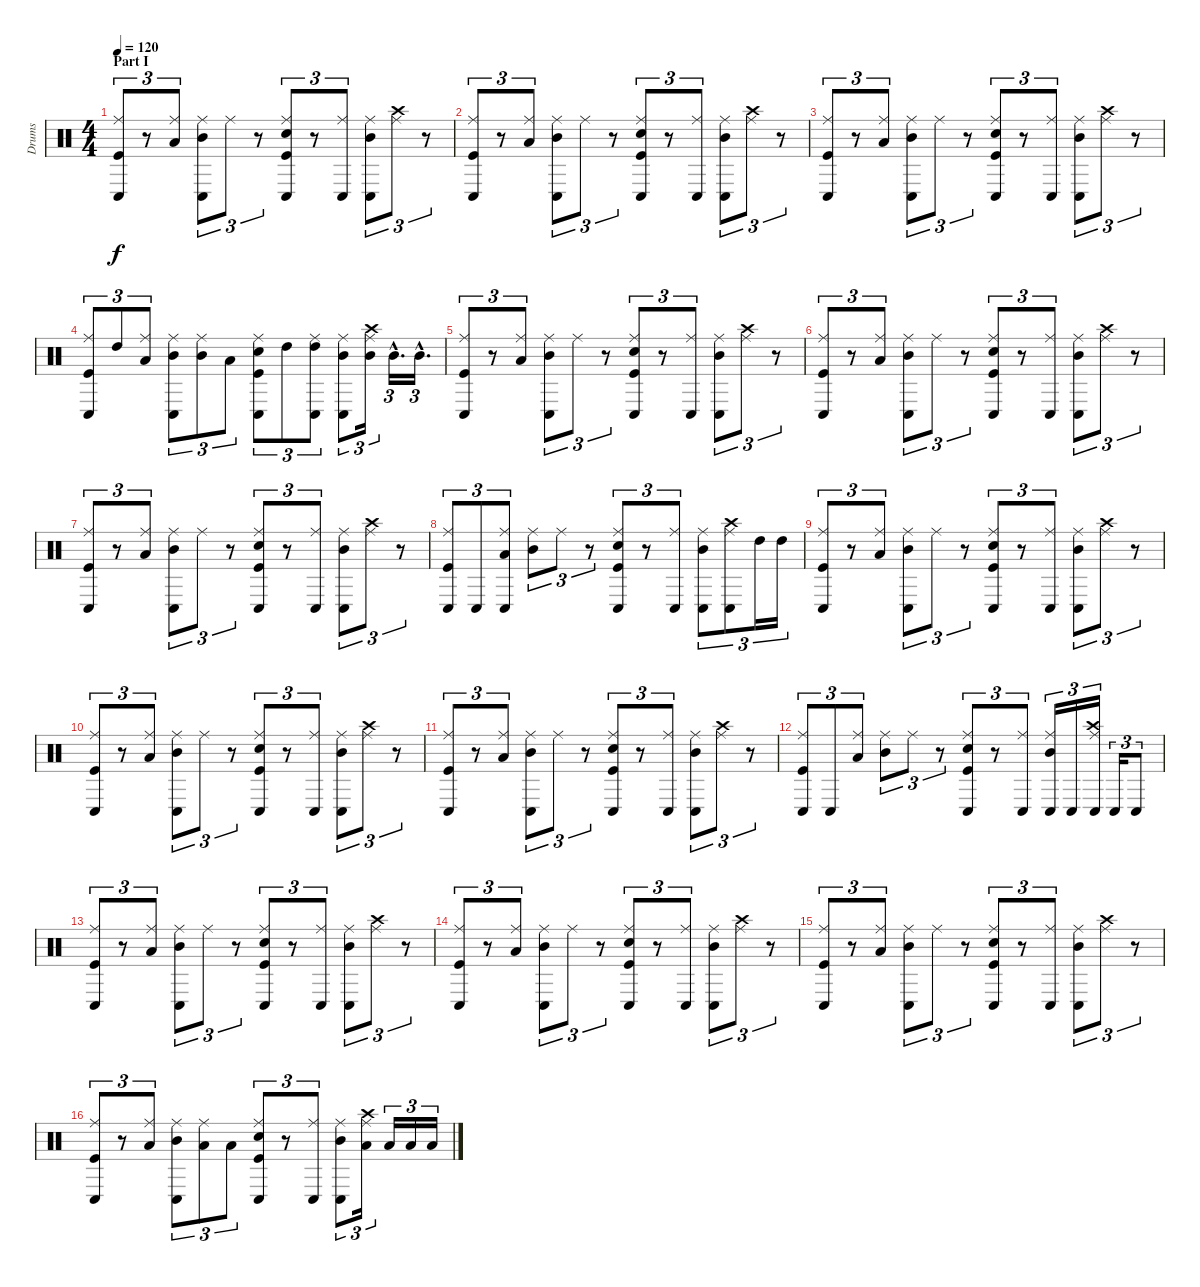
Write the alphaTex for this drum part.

\track ("Drums" "Drums") {instrument percussion}
\staff {score}
\articulation defaults
\ts (4 4)
\section ("" "Part I")
\tempo 120
\clef neutral
\ks c
("Kick (hit)" "Ride (middle)" "Conga low (hit)").8{tu (3 2) dy f} r.8{tu (3 2)} ("Low Floor Tom (hit)" "Ride (middle)").8{tu (3 2)} ("Mid Tom (hit)" "Ride (middle)" "Conga low (hit)").8{tu (3 2)} "Ride (middle)".8{tu (3 2)} r.8{tu (3 2)} ("Kick (hit)" "Snare (hit) 2" "Ride (middle)" "Conga low (hit)").8{tu (3 2)} r.8{tu (3 2)} ("Ride (middle)" "Conga low (hit)").8{tu (3 2)} ("Mid Tom (hit)" "Ride (middle)" "Conga low (hit)").8{tu (3 2)} ("Ride (middle)" "Crash high (hit)").8{tu (3 2)} r.8{tu (3 2)} |
("Kick (hit)" "Ride (middle)" "Conga low (hit)").8{tu (3 2)} r.8{tu (3 2)} ("Low Floor Tom (hit)" "Ride (middle)").8{tu (3 2)} ("Mid Tom (hit)" "Ride (middle)" "Conga low (hit)").8{tu (3 2)} "Ride (middle)".8{tu (3 2)} r.8{tu (3 2)} ("Kick (hit)" "Snare (hit) 2" "Ride (middle)" "Conga low (hit)").8{tu (3 2)} r.8{tu (3 2)} ("Ride (middle)" "Conga low (hit)").8{tu (3 2)} ("Mid Tom (hit)" "Ride (middle)" "Conga low (hit)").8{tu (3 2)} ("Ride (middle)" "Crash high (hit)").8{tu (3 2)} r.8{tu (3 2)} |
("Kick (hit)" "Ride (middle)" "Conga low (hit)").8{tu (3 2)} r.8{tu (3 2)} ("Low Floor Tom (hit)" "Ride (middle)").8{tu (3 2)} ("Mid Tom (hit)" "Ride (middle)" "Conga low (hit)").8{tu (3 2)} "Ride (middle)".8{tu (3 2)} r.8{tu (3 2)} ("Kick (hit)" "Snare (hit) 2" "Ride (middle)" "Conga low (hit)").8{tu (3 2)} r.8{tu (3 2)} ("Ride (middle)" "Conga low (hit)").8{tu (3 2)} ("Mid Tom (hit)" "Ride (middle)" "Conga low (hit)").8{tu (3 2)} ("Ride (middle)" "Crash high (hit)").8{tu (3 2)} r.8{tu (3 2)} |
("Kick (hit)" "Ride (middle)" "Conga low (hit)").8{tu (3 2)} "High Tom (hit)".8{tu (3 2)} ("Low Floor Tom (hit)" "Ride (middle)").8{tu (3 2)} ("Mid Tom (hit)" "Ride (middle)" "Conga low (hit)").8{tu (3 2)} ("Mid Tom (hit)" "Ride (middle)").8{tu (3 2)} "Low Tom (hit)".8{tu (3 2)} ("Kick (hit)" "Snare (hit) 2" "Ride (middle)" "Conga low (hit)").8{tu (3 2)} "High Tom (hit)".8{tu (3 2)} ("High Tom (hit)" "Ride (middle)" "Conga low (hit)").8{tu (3 2)} ("Mid Tom (hit)" "Ride (middle)" "Conga low (hit)").8{tu (3 2)} ("Mid Tom (hit)" "Ride (middle)" "Crash high (hit)").16{tu (3 2)} "Mid Tom (hit)"{hac}.16{d tu (3 2)} "Mid Tom (hit)"{hac}.16{d tu (3 2)} |
("Kick (hit)" "Ride (middle)" "Conga low (hit)").8{tu (3 2)} r.8{tu (3 2)} ("Low Floor Tom (hit)" "Ride (middle)").8{tu (3 2)} ("Mid Tom (hit)" "Ride (middle)" "Conga low (hit)").8{tu (3 2)} "Ride (middle)".8{tu (3 2)} r.8{tu (3 2)} ("Kick (hit)" "Snare (hit) 2" "Ride (middle)" "Conga low (hit)").8{tu (3 2)} r.8{tu (3 2)} ("Ride (middle)" "Conga low (hit)").8{tu (3 2)} ("Mid Tom (hit)" "Ride (middle)" "Conga low (hit)").8{tu (3 2)} ("Ride (middle)" "Crash high (hit)").8{tu (3 2)} r.8{tu (3 2)} |
("Kick (hit)" "Ride (middle)" "Conga low (hit)").8{tu (3 2)} r.8{tu (3 2)} ("Low Floor Tom (hit)" "Ride (middle)").8{tu (3 2)} ("Mid Tom (hit)" "Ride (middle)" "Conga low (hit)").8{tu (3 2)} "Ride (middle)".8{tu (3 2)} r.8{tu (3 2)} ("Kick (hit)" "Snare (hit) 2" "Ride (middle)" "Conga low (hit)").8{tu (3 2)} r.8{tu (3 2)} ("Ride (middle)" "Conga low (hit)").8{tu (3 2)} ("Mid Tom (hit)" "Ride (middle)" "Conga low (hit)").8{tu (3 2)} ("Ride (middle)" "Crash high (hit)").8{tu (3 2)} r.8{tu (3 2)} |
("Kick (hit)" "Ride (middle)" "Conga low (hit)").8{tu (3 2)} r.8{tu (3 2)} ("Low Floor Tom (hit)" "Ride (middle)").8{tu (3 2)} ("Mid Tom (hit)" "Ride (middle)" "Conga low (hit)").8{tu (3 2)} "Ride (middle)".8{tu (3 2)} r.8{tu (3 2)} ("Kick (hit)" "Snare (hit) 2" "Ride (middle)" "Conga low (hit)").8{tu (3 2)} r.8{tu (3 2)} ("Ride (middle)" "Conga low (hit)").8{tu (3 2)} ("Mid Tom (hit)" "Ride (middle)" "Conga low (hit)").8{tu (3 2)} ("Ride (middle)" "Crash high (hit)").8{tu (3 2)} r.8{tu (3 2)} |
("Kick (hit)" "Ride (middle)" "Conga low (hit)").8{tu (3 2)} "Conga low (hit)".8{tu (3 2)} ("Low Floor Tom (hit)" "Ride (middle)" "Conga low (hit)").8{tu (3 2)} ("Mid Tom (hit)" "Ride (middle)").8{tu (3 2)} "Ride (middle)".8{tu (3 2)} r.8{tu (3 2)} ("Kick (hit)" "Snare (hit) 2" "Ride (middle)" "Conga low (hit)").8{tu (3 2)} r.8{tu (3 2)} ("Ride (middle)" "Conga low (hit)").8{tu (3 2)} ("Mid Tom (hit)" "Ride (middle)" "Conga low (hit)").8{tu (3 2)} ("Ride (middle)" "Crash high (hit)" "Conga low (hit)").8{tu (3 2)} "High Tom (hit)".16{tu (3 2)} "High Tom (hit)".16{tu (3 2)} |
("Kick (hit)" "Ride (middle)" "Conga low (hit)").8{tu (3 2)} r.8{tu (3 2)} ("Low Floor Tom (hit)" "Ride (middle)").8{tu (3 2)} ("Mid Tom (hit)" "Ride (middle)" "Conga low (hit)").8{tu (3 2)} "Ride (middle)".8{tu (3 2)} r.8{tu (3 2)} ("Kick (hit)" "Snare (hit) 2" "Ride (middle)" "Conga low (hit)").8{tu (3 2)} r.8{tu (3 2)} ("Ride (middle)" "Conga low (hit)").8{tu (3 2)} ("Mid Tom (hit)" "Ride (middle)" "Conga low (hit)").8{tu (3 2)} ("Ride (middle)" "Crash high (hit)").8{tu (3 2)} r.8{tu (3 2)} |
("Kick (hit)" "Ride (middle)" "Conga low (hit)").8{tu (3 2)} r.8{tu (3 2)} ("Low Floor Tom (hit)" "Ride (middle)").8{tu (3 2)} ("Mid Tom (hit)" "Ride (middle)" "Conga low (hit)").8{tu (3 2)} "Ride (middle)".8{tu (3 2)} r.8{tu (3 2)} ("Kick (hit)" "Snare (hit) 2" "Ride (middle)" "Conga low (hit)").8{tu (3 2)} r.8{tu (3 2)} ("Ride (middle)" "Conga low (hit)").8{tu (3 2)} ("Mid Tom (hit)" "Ride (middle)" "Conga low (hit)").8{tu (3 2)} ("Ride (middle)" "Crash high (hit)").8{tu (3 2)} r.8{tu (3 2)} |
("Kick (hit)" "Ride (middle)" "Conga low (hit)").8{tu (3 2)} r.8{tu (3 2)} ("Low Floor Tom (hit)" "Ride (middle)").8{tu (3 2)} ("Mid Tom (hit)" "Ride (middle)" "Conga low (hit)").8{tu (3 2)} "Ride (middle)".8{tu (3 2)} r.8{tu (3 2)} ("Kick (hit)" "Snare (hit) 2" "Ride (middle)" "Conga low (hit)").8{tu (3 2)} r.8{tu (3 2)} ("Ride (middle)" "Conga low (hit)").8{tu (3 2)} ("Mid Tom (hit)" "Ride (middle)" "Conga low (hit)").8{tu (3 2)} ("Ride (middle)" "Crash high (hit)").8{tu (3 2)} r.8{tu (3 2)} |
("Kick (hit)" "Ride (middle)" "Conga low (hit)").8{tu (3 2)} "Conga low (hit)".8{tu (3 2)} ("Low Floor Tom (hit)" "Ride (middle)").8{tu (3 2)} ("Mid Tom (hit)" "Ride (middle)").8{tu (3 2)} "Ride (middle)".8{tu (3 2)} r.8{tu (3 2)} ("Kick (hit)" "Snare (hit) 2" "Ride (middle)" "Conga low (hit)").8{tu (3 2)} r.8{tu (3 2)} ("Ride (middle)" "Conga low (hit)").8{tu (3 2)} ("Mid Tom (hit)" "Ride (middle)" "Conga low (hit)").16{tu (3 2)} "Conga low (hit)".16{tu (3 2)} ("Ride (middle)" "Crash high (hit)" "Conga low (hit)").16{tu (3 2)} "Conga low (hit)".16{tu (3 2)} "Conga low (hit)".8{tu (3 2)} |
("Kick (hit)" "Ride (middle)" "Conga low (hit)").8{tu (3 2)} r.8{tu (3 2)} ("Low Floor Tom (hit)" "Ride (middle)").8{tu (3 2)} ("Mid Tom (hit)" "Ride (middle)" "Conga low (hit)").8{tu (3 2)} "Ride (middle)".8{tu (3 2)} r.8{tu (3 2)} ("Kick (hit)" "Snare (hit) 2" "Ride (middle)" "Conga low (hit)").8{tu (3 2)} r.8{tu (3 2)} ("Ride (middle)" "Conga low (hit)").8{tu (3 2)} ("Mid Tom (hit)" "Ride (middle)" "Conga low (hit)").8{tu (3 2)} ("Ride (middle)" "Crash high (hit)").8{tu (3 2)} r.8{tu (3 2)} |
("Kick (hit)" "Ride (middle)" "Conga low (hit)").8{tu (3 2)} r.8{tu (3 2)} ("Low Floor Tom (hit)" "Ride (middle)").8{tu (3 2)} ("Mid Tom (hit)" "Ride (middle)" "Conga low (hit)").8{tu (3 2)} "Ride (middle)".8{tu (3 2)} r.8{tu (3 2)} ("Kick (hit)" "Snare (hit) 2" "Ride (middle)" "Conga low (hit)").8{tu (3 2)} r.8{tu (3 2)} ("Ride (middle)" "Conga low (hit)").8{tu (3 2)} ("Mid Tom (hit)" "Ride (middle)" "Conga low (hit)").8{tu (3 2)} ("Ride (middle)" "Crash high (hit)").8{tu (3 2)} r.8{tu (3 2)} |
("Kick (hit)" "Ride (middle)" "Conga low (hit)").8{tu (3 2)} r.8{tu (3 2)} ("Low Floor Tom (hit)" "Ride (middle)").8{tu (3 2)} ("Mid Tom (hit)" "Ride (middle)" "Conga low (hit)").8{tu (3 2)} "Ride (middle)".8{tu (3 2)} r.8{tu (3 2)} ("Kick (hit)" "Snare (hit) 2" "Ride (middle)" "Conga low (hit)").8{tu (3 2)} r.8{tu (3 2)} ("Ride (middle)" "Conga low (hit)").8{tu (3 2)} ("Mid Tom (hit)" "Ride (middle)" "Conga low (hit)").8{tu (3 2)} ("Ride (middle)" "Crash high (hit)").8{tu (3 2)} r.8{tu (3 2)} |
("Kick (hit)" "Ride (middle)" "Conga low (hit)").8{tu (3 2)} r.8{tu (3 2)} ("Low Floor Tom (hit)" "Ride (middle)").8{tu (3 2)} ("Mid Tom (hit)" "Ride (middle)" "Conga low (hit)").8{tu (3 2)} ("Low Tom (hit)" "Ride (middle)").8{tu (3 2)} "Low Tom (hit)".8{tu (3 2)} ("Kick (hit)" "Snare (hit) 2" "Ride (middle)" "Conga low (hit)").8{tu (3 2)} r.8{tu (3 2)} ("Ride (middle)" "Conga low (hit)").8{tu (3 2)} ("Mid Tom (hit)" "Ride (middle)" "Conga low (hit)").8{tu (3 2)} ("Low Tom (hit)" "Ride (middle)" "Crash high (hit)").16{tu (3 2)} "Low Tom (hit)".16{tu (3 2)} "Low Tom (hit)".16{tu (3 2)} "Low Tom (hit)".16{tu (3 2)}
